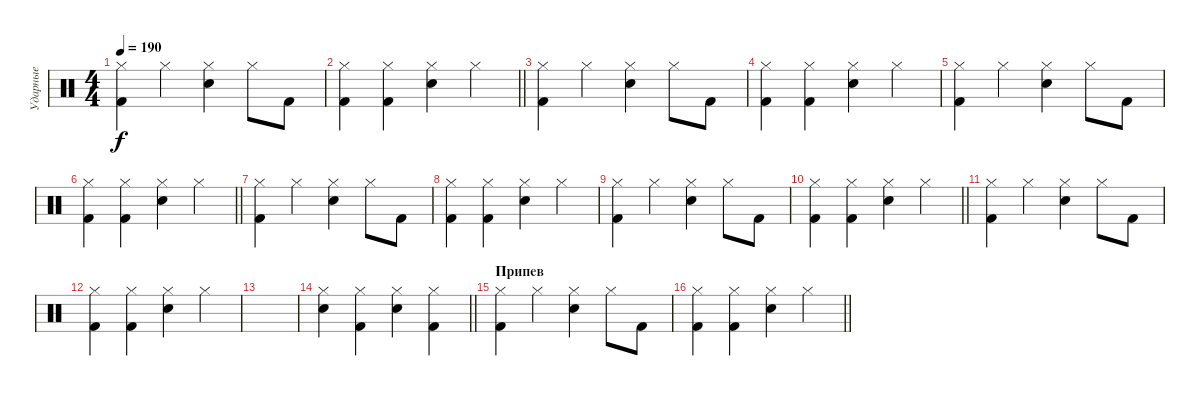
\track ("Ударные" "Ударные") {instrument percussion}
\staff {score}
\articulation defaults
\ts (4 4)
\tempo 190
\clef neutral
\ks c
("Kick (hit) 2" "Hi-Hat (closed)").4{dy f} "Hi-Hat (closed)".4 ("Hand Clap (hit)" "Hi-Hat (closed)").4 "Hi-Hat (closed)".8 "Kick (hit) 2".8 |
\barLineRight lightlight
("Kick (hit) 2" "Hi-Hat (closed)").4 ("Kick (hit) 2" "Hi-Hat (closed)").4 ("Hand Clap (hit)" "Hi-Hat (closed)").4 "Hi-Hat (closed)".4 |
("Kick (hit) 2" "Hi-Hat (closed)").4 "Hi-Hat (closed)".4 ("Hand Clap (hit)" "Hi-Hat (closed)").4 "Hi-Hat (closed)".8 "Kick (hit) 2".8 |
("Kick (hit) 2" "Hi-Hat (closed)").4 ("Kick (hit) 2" "Hi-Hat (closed)").4 ("Hand Clap (hit)" "Hi-Hat (closed)").4 "Hi-Hat (closed)".4 |
("Kick (hit) 2" "Hi-Hat (closed)").4 "Hi-Hat (closed)".4 ("Hand Clap (hit)" "Hi-Hat (closed)").4 "Hi-Hat (closed)".8 "Kick (hit) 2".8 |
\barLineRight lightlight
("Kick (hit) 2" "Hi-Hat (closed)").4 ("Kick (hit) 2" "Hi-Hat (closed)").4 ("Hand Clap (hit)" "Hi-Hat (closed)").4 "Hi-Hat (closed)".4 |
("Kick (hit) 2" "Hi-Hat (closed)").4 "Hi-Hat (closed)".4 ("Hand Clap (hit)" "Hi-Hat (closed)").4 "Hi-Hat (closed)".8 "Kick (hit) 2".8 |
("Kick (hit) 2" "Hi-Hat (closed)").4 ("Kick (hit) 2" "Hi-Hat (closed)").4 ("Hand Clap (hit)" "Hi-Hat (closed)").4 "Hi-Hat (closed)".4 |
("Kick (hit) 2" "Hi-Hat (closed)").4 "Hi-Hat (closed)".4 ("Hand Clap (hit)" "Hi-Hat (closed)").4 "Hi-Hat (closed)".8 "Kick (hit) 2".8 |
\barLineRight lightlight
("Kick (hit) 2" "Hi-Hat (closed)").4 ("Kick (hit) 2" "Hi-Hat (closed)").4 ("Hand Clap (hit)" "Hi-Hat (closed)").4 "Hi-Hat (closed)".4 |
("Kick (hit) 2" "Hi-Hat (closed)").4 "Hi-Hat (closed)".4 ("Hand Clap (hit)" "Hi-Hat (closed)").4 "Hi-Hat (closed)".8 "Kick (hit) 2".8 |
("Kick (hit) 2" "Hi-Hat (closed)").4 ("Kick (hit) 2" "Hi-Hat (closed)").4 ("Hand Clap (hit)" "Hi-Hat (closed)").4 "Hi-Hat (closed)".4 |
|
\barLineRight lightlight
("Hand Clap (hit)" "Hi-Hat (closed)").4 ("Kick (hit) 2" "Hi-Hat (closed)").4 ("Hand Clap (hit)" "Hi-Hat (closed)").4 ("Kick (hit) 2" "Hi-Hat (closed)").4 |
\section ("" "Припев")
("Kick (hit) 2" "Hi-Hat (closed)").4 "Hi-Hat (closed)".4 ("Hand Clap (hit)" "Hi-Hat (closed)").4 "Hi-Hat (closed)".8 "Kick (hit) 2".8 |
\barLineRight lightlight
("Kick (hit) 2" "Hi-Hat (closed)").4 ("Kick (hit) 2" "Hi-Hat (closed)").4 ("Hand Clap (hit)" "Hi-Hat (closed)").4 "Hi-Hat (closed)".4
